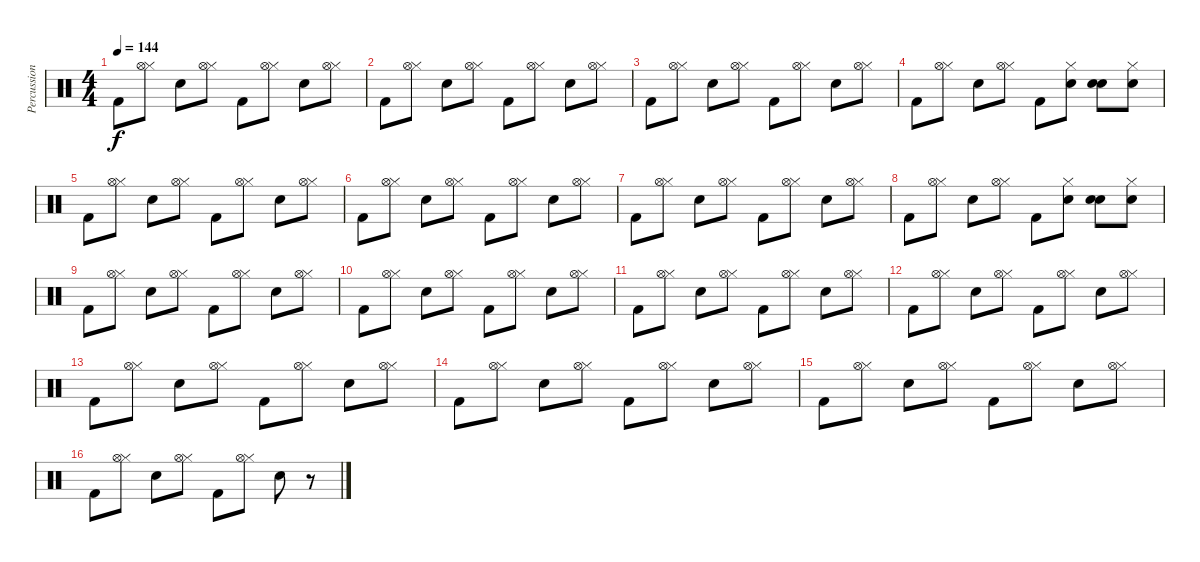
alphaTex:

\track ("Percussion" "Percussion") {instrument percussion}
\staff {score}
\articulation defaults
\ts (4 4)
\tempo 144
\clef neutral
\ks c "Kick (hit) 2".8{dy f}
("Hi-Hat (closed)" "Hi-Hat (open)").8 "Electric Snare (hit)".8 ("Hi-Hat (closed)" "Hi-Hat (open)").8 "Kick (hit) 2".8 ("Hi-Hat (closed)" "Hi-Hat (open)").8 "Electric Snare (hit)".8 ("Hi-Hat (closed)" "Hi-Hat (open)").8 |
"Kick (hit) 2".8 ("Hi-Hat (closed)" "Hi-Hat (open)").8 "Electric Snare (hit)".8 ("Hi-Hat (closed)" "Hi-Hat (open)").8 "Kick (hit) 2".8 ("Hi-Hat (closed)" "Hi-Hat (open)").8 "Electric Snare (hit)".8 ("Hi-Hat (closed)" "Hi-Hat (open)").8 |
"Kick (hit) 2".8 ("Hi-Hat (closed)" "Hi-Hat (open)").8 "Electric Snare (hit)".8 ("Hi-Hat (closed)" "Hi-Hat (open)").8 "Kick (hit) 2".8 ("Hi-Hat (closed)" "Hi-Hat (open)").8 "Electric Snare (hit)".8 ("Hi-Hat (closed)" "Hi-Hat (open)").8 |
"Kick (hit) 2".8 ("Hi-Hat (closed)" "Hi-Hat (open)").8 "Electric Snare (hit)".8 ("Hi-Hat (closed)" "Hi-Hat (open)").8 "Kick (hit) 2".8 ("Hi-Hat (closed)" "Electric Snare (hit)").8 ("Electric Snare (hit)" "Electric Snare (hit)").8 ("Hi-Hat (closed)" "Electric Snare (hit)").8 |
"Kick (hit) 2".8 ("Hi-Hat (closed)" "Hi-Hat (open)").8 "Electric Snare (hit)".8 ("Hi-Hat (closed)" "Hi-Hat (open)").8 "Kick (hit) 2".8 ("Hi-Hat (closed)" "Hi-Hat (open)").8 "Electric Snare (hit)".8 ("Hi-Hat (closed)" "Hi-Hat (open)").8 |
"Kick (hit) 2".8 ("Hi-Hat (closed)" "Hi-Hat (open)").8 "Electric Snare (hit)".8 ("Hi-Hat (closed)" "Hi-Hat (open)").8 "Kick (hit) 2".8 ("Hi-Hat (closed)" "Hi-Hat (open)").8 "Electric Snare (hit)".8 ("Hi-Hat (closed)" "Hi-Hat (open)").8 |
"Kick (hit) 2".8 ("Hi-Hat (closed)" "Hi-Hat (open)").8 "Electric Snare (hit)".8 ("Hi-Hat (closed)" "Hi-Hat (open)").8 "Kick (hit) 2".8 ("Hi-Hat (closed)" "Hi-Hat (open)").8 "Electric Snare (hit)".8 ("Hi-Hat (closed)" "Hi-Hat (open)").8 |
"Kick (hit) 2".8 ("Hi-Hat (closed)" "Hi-Hat (open)").8 "Electric Snare (hit)".8 ("Hi-Hat (closed)" "Hi-Hat (open)").8 "Kick (hit) 2".8 ("Hi-Hat (closed)" "Electric Snare (hit)").8 ("Electric Snare (hit)" "Electric Snare (hit)").8 ("Hi-Hat (closed)" "Electric Snare (hit)").8 |
"Kick (hit) 2".8 ("Hi-Hat (closed)" "Hi-Hat (open)").8 "Electric Snare (hit)".8 ("Hi-Hat (closed)" "Hi-Hat (open)").8 "Kick (hit) 2".8 ("Hi-Hat (closed)" "Hi-Hat (open)").8 "Electric Snare (hit)".8 ("Hi-Hat (closed)" "Hi-Hat (open)").8 |
"Kick (hit) 2".8 ("Hi-Hat (closed)" "Hi-Hat (open)").8 "Electric Snare (hit)".8 ("Hi-Hat (closed)" "Hi-Hat (open)").8 "Kick (hit) 2".8 ("Hi-Hat (closed)" "Hi-Hat (open)").8 "Electric Snare (hit)".8 ("Hi-Hat (closed)" "Hi-Hat (open)").8 |
"Kick (hit) 2".8 ("Hi-Hat (closed)" "Hi-Hat (open)").8 "Electric Snare (hit)".8 ("Hi-Hat (closed)" "Hi-Hat (open)").8 "Kick (hit) 2".8 ("Hi-Hat (closed)" "Hi-Hat (open)").8 "Electric Snare (hit)".8 ("Hi-Hat (closed)" "Hi-Hat (open)").8 |
"Kick (hit) 2".8 ("Hi-Hat (closed)" "Hi-Hat (open)").8 "Electric Snare (hit)".8 ("Hi-Hat (closed)" "Hi-Hat (open)").8 "Kick (hit) 2".8 ("Hi-Hat (closed)" "Hi-Hat (open)").8 "Electric Snare (hit)".8 ("Hi-Hat (closed)" "Hi-Hat (open)").8 |
"Kick (hit) 2".8 ("Hi-Hat (closed)" "Hi-Hat (open)").8 "Electric Snare (hit)".8 ("Hi-Hat (closed)" "Hi-Hat (open)").8 "Kick (hit) 2".8 ("Hi-Hat (closed)" "Hi-Hat (open)").8 "Electric Snare (hit)".8 ("Hi-Hat (closed)" "Hi-Hat (open)").8 |
"Kick (hit) 2".8 ("Hi-Hat (closed)" "Hi-Hat (open)").8 "Electric Snare (hit)".8 ("Hi-Hat (closed)" "Hi-Hat (open)").8 "Kick (hit) 2".8 ("Hi-Hat (closed)" "Hi-Hat (open)").8 "Electric Snare (hit)".8 ("Hi-Hat (closed)" "Hi-Hat (open)").8 |
"Kick (hit) 2".8 ("Hi-Hat (closed)" "Hi-Hat (open)").8 "Electric Snare (hit)".8 ("Hi-Hat (closed)" "Hi-Hat (open)").8 "Kick (hit) 2".8 ("Hi-Hat (closed)" "Hi-Hat (open)").8 "Electric Snare (hit)".8 ("Hi-Hat (closed)" "Hi-Hat (open)").8 |
"Kick (hit) 2".8 ("Hi-Hat (closed)" "Hi-Hat (open)").8 "Electric Snare (hit)".8 ("Hi-Hat (closed)" "Hi-Hat (open)").8 "Kick (hit) 2".8 ("Hi-Hat (closed)" "Hi-Hat (open)").8 "Electric Snare (hit)".8 r.8
